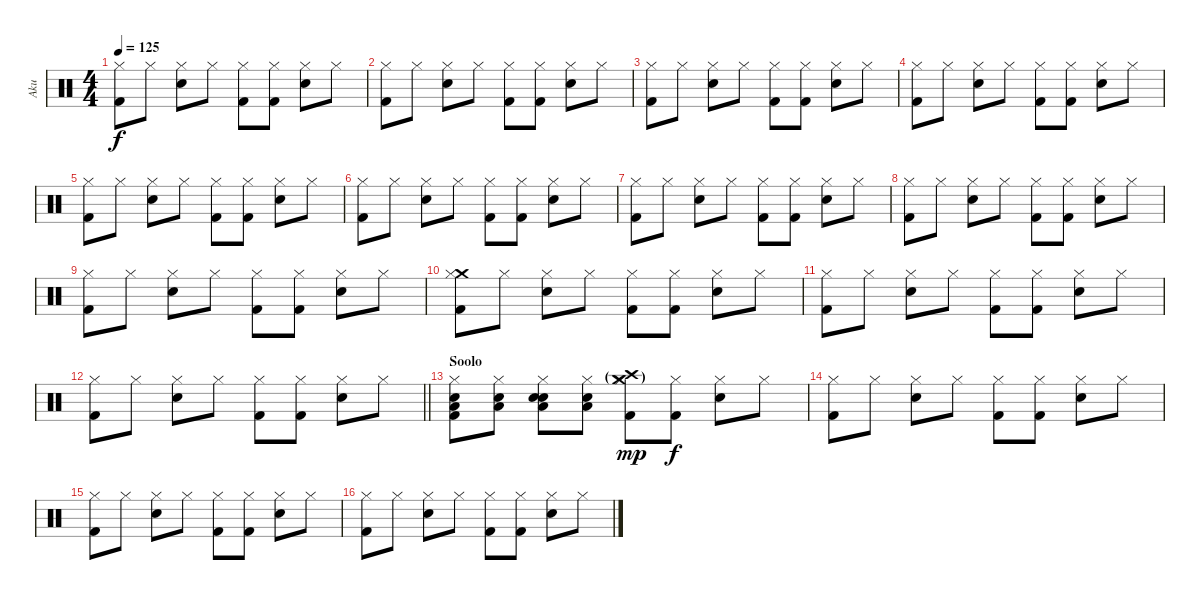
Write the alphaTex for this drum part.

\track ("Aku" "Aku") {instrument percussion}
\staff {score}
\articulation defaults
\ts (4 4)
\tempo 125
\clef neutral
\ks c
("Hi-Hat (closed)" "Kick (hit) 2").8{dy f} "Hi-Hat (closed)".8 ("Hi-Hat (closed)" "Snare (hit) 2").8 "Hi-Hat (closed)".8 ("Hi-Hat (closed)" "Kick (hit) 2").8 ("Hi-Hat (closed)" "Kick (hit) 2").8 ("Hi-Hat (closed)" "Snare (hit) 2").8 "Hi-Hat (closed)".8 |
("Hi-Hat (closed)" "Kick (hit) 2").8 "Hi-Hat (closed)".8 ("Hi-Hat (closed)" "Snare (hit) 2").8 "Hi-Hat (closed)".8 ("Hi-Hat (closed)" "Kick (hit) 2").8 ("Hi-Hat (closed)" "Kick (hit) 2").8 ("Hi-Hat (closed)" "Snare (hit) 2").8 "Hi-Hat (closed)".8 |
("Hi-Hat (closed)" "Kick (hit) 2").8 "Hi-Hat (closed)".8 ("Hi-Hat (closed)" "Snare (hit) 2").8 "Hi-Hat (closed)".8 ("Hi-Hat (closed)" "Kick (hit) 2").8 ("Hi-Hat (closed)" "Kick (hit) 2").8 ("Hi-Hat (closed)" "Snare (hit) 2").8 "Hi-Hat (closed)".8 |
("Hi-Hat (closed)" "Kick (hit) 2").8 "Hi-Hat (closed)".8 ("Hi-Hat (closed)" "Snare (hit) 2").8 "Hi-Hat (closed)".8 ("Hi-Hat (closed)" "Kick (hit) 2").8 ("Hi-Hat (closed)" "Kick (hit) 2").8 ("Hi-Hat (closed)" "Snare (hit) 2").8 "Hi-Hat (closed)".8 |
("Hi-Hat (closed)" "Kick (hit) 2").8 "Hi-Hat (closed)".8 ("Hi-Hat (closed)" "Snare (hit) 2").8 "Hi-Hat (closed)".8 ("Hi-Hat (closed)" "Kick (hit) 2").8 ("Hi-Hat (closed)" "Kick (hit) 2").8 ("Hi-Hat (closed)" "Snare (hit) 2").8 "Hi-Hat (closed)".8 |
("Hi-Hat (closed)" "Kick (hit) 2").8 "Hi-Hat (closed)".8 ("Hi-Hat (closed)" "Snare (hit) 2").8 "Hi-Hat (closed)".8 ("Hi-Hat (closed)" "Kick (hit) 2").8 ("Hi-Hat (closed)" "Kick (hit) 2").8 ("Hi-Hat (closed)" "Snare (hit) 2").8 "Hi-Hat (closed)".8 |
("Hi-Hat (closed)" "Kick (hit) 2").8 "Hi-Hat (closed)".8 ("Hi-Hat (closed)" "Snare (hit) 2").8 "Hi-Hat (closed)".8 ("Hi-Hat (closed)" "Kick (hit) 2").8 ("Hi-Hat (closed)" "Kick (hit) 2").8 ("Hi-Hat (closed)" "Snare (hit) 2").8 "Hi-Hat (closed)".8 |
("Hi-Hat (closed)" "Kick (hit) 2").8 "Hi-Hat (closed)".8 ("Hi-Hat (closed)" "Snare (hit) 2").8 "Hi-Hat (closed)".8 ("Hi-Hat (closed)" "Kick (hit) 2").8 ("Hi-Hat (closed)" "Kick (hit) 2").8 ("Hi-Hat (closed)" "Snare (hit) 2").8 "Hi-Hat (closed)".8 |
("Hi-Hat (closed)" "Kick (hit) 2").8 "Hi-Hat (closed)".8 ("Hi-Hat (closed)" "Snare (hit) 2").8 "Hi-Hat (closed)".8 ("Hi-Hat (closed)" "Kick (hit) 2").8 ("Hi-Hat (closed)" "Kick (hit) 2").8 ("Hi-Hat (closed)" "Snare (hit) 2").8 "Hi-Hat (closed)".8 |
("Crash medium (hit)" "Hi-Hat (closed)" "Kick (hit) 2").8 "Hi-Hat (closed)".8 ("Hi-Hat (closed)" "Snare (hit) 2").8 "Hi-Hat (closed)".8 ("Hi-Hat (closed)" "Kick (hit) 2").8 ("Hi-Hat (closed)" "Kick (hit) 2").8 ("Hi-Hat (closed)" "Snare (hit) 2").8 "Hi-Hat (closed)".8 |
("Hi-Hat (closed)" "Kick (hit) 2").8 "Hi-Hat (closed)".8 ("Hi-Hat (closed)" "Snare (hit) 2").8 "Hi-Hat (closed)".8 ("Hi-Hat (closed)" "Kick (hit) 2").8 ("Hi-Hat (closed)" "Kick (hit) 2").8 ("Hi-Hat (closed)" "Snare (hit) 2").8 "Hi-Hat (closed)".8 |
\barLineRight lightlight
("Hi-Hat (closed)" "Kick (hit) 2").8 "Hi-Hat (closed)".8 ("Hi-Hat (closed)" "Snare (hit) 2").8 "Hi-Hat (closed)".8 ("Hi-Hat (closed)" "Kick (hit) 2").8 ("Hi-Hat (closed)" "Kick (hit) 2").8 ("Hi-Hat (closed)" "Snare (hit) 2").8 "Hi-Hat (closed)".8 |
\section ("" "Soolo")
("Low Tom (hit)" "Snare (hit) 2" "Hi-Hat (closed)" "Kick (hit) 2").8 ("Low Tom (hit)" "Snare (hit) 2" "Hi-Hat (closed)").8 ("Low Tom (hit)" "Snare (hit) 2" "Hi-Hat (closed)" "Snare (hit) 2").8 ("Low Tom (hit)" "Snare (hit) 2" "Hi-Hat (closed)").8 ("Crash high (hit)"{g} "Crash medium (hit)"{g} "Hi-Hat (closed)" "Kick (hit) 2").8{dy mp} ("Hi-Hat (closed)" "Kick (hit) 2").8{dy f} ("Hi-Hat (closed)" "Snare (hit) 2").8 "Hi-Hat (closed)".8 |
("Hi-Hat (closed)" "Kick (hit) 2").8 "Hi-Hat (closed)".8 ("Hi-Hat (closed)" "Snare (hit) 2").8 "Hi-Hat (closed)".8 ("Hi-Hat (closed)" "Kick (hit) 2").8 ("Hi-Hat (closed)" "Kick (hit) 2").8 ("Hi-Hat (closed)" "Snare (hit) 2").8 "Hi-Hat (closed)".8 |
("Hi-Hat (closed)" "Kick (hit) 2").8 "Hi-Hat (closed)".8 ("Hi-Hat (closed)" "Snare (hit) 2").8 "Hi-Hat (closed)".8 ("Hi-Hat (closed)" "Kick (hit) 2").8 ("Hi-Hat (closed)" "Kick (hit) 2").8 ("Hi-Hat (closed)" "Snare (hit) 2").8 "Hi-Hat (closed)".8 |
("Hi-Hat (closed)" "Kick (hit) 2").8 "Hi-Hat (closed)".8 ("Hi-Hat (closed)" "Snare (hit) 2").8 "Hi-Hat (closed)".8 ("Hi-Hat (closed)" "Kick (hit) 2").8 ("Hi-Hat (closed)" "Kick (hit) 2").8 ("Hi-Hat (closed)" "Snare (hit) 2").8 "Hi-Hat (closed)".8
